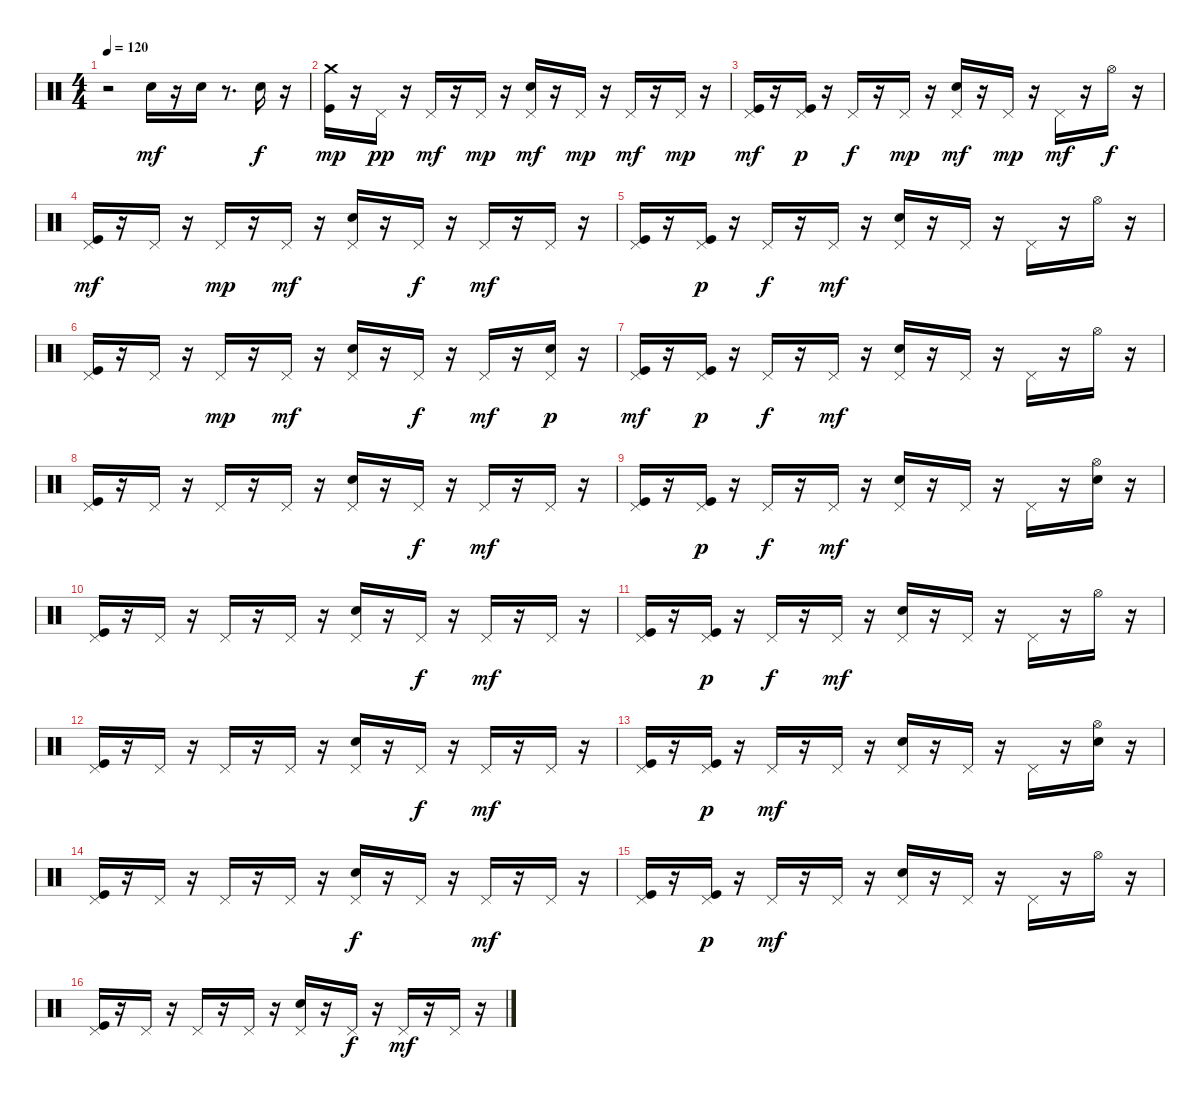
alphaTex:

\track "" {instrument percussion}
\staff {score}
\articulation defaults
\ts (4 4)
\tempo 120
\clef neutral
\ks c
r.2{dy mf} "Snare (hit) 2".16 r.16 "Snare (hit) 2".16 r.8{d} "Snare (hit) 2".16{dy f} r.16 |
("Crash medium (hit)" "Kick (hit)").16{dy mp} r.16 "Pedal Hi-Hat (hit)".16{dy pp} r.16 "Pedal Hi-Hat (hit)".16{dy mf} r.16 "Pedal Hi-Hat (hit)".16{dy mp} r.16 ("Snare (hit) 2" "Pedal Hi-Hat (hit)").16{dy mf} r.16 "Pedal Hi-Hat (hit)".16{dy mp} r.16 "Pedal Hi-Hat (hit)".16{dy mf} r.16 "Pedal Hi-Hat (hit)".16{dy mp} r.16 |
("Kick (hit)" "Pedal Hi-Hat (hit)").16{dy mf} r.16 ("Kick (hit)" "Pedal Hi-Hat (hit)").16{dy p} r.16 "Pedal Hi-Hat (hit)".16{dy f} r.16 "Pedal Hi-Hat (hit)".16{dy mp} r.16 ("Snare (hit) 2" "Pedal Hi-Hat (hit)").16{dy mf} r.16 "Pedal Hi-Hat (hit)".16{dy mp} r.16 "Pedal Hi-Hat (hit)".16{dy mf} r.16 "Hi-Hat (open)".16{dy f} r.16 |
("Kick (hit)" "Pedal Hi-Hat (hit)").16{dy mf} r.16 "Pedal Hi-Hat (hit)".16 r.16 "Pedal Hi-Hat (hit)".16{dy mp} r.16 "Pedal Hi-Hat (hit)".16{dy mf} r.16 ("Snare (hit) 2" "Pedal Hi-Hat (hit)").16 r.16 "Pedal Hi-Hat (hit)".16{dy f} r.16 "Pedal Hi-Hat (hit)".16{dy mf} r.16 "Pedal Hi-Hat (hit)".16 r.16 |
("Kick (hit)" "Pedal Hi-Hat (hit)").16 r.16 ("Kick (hit)" "Pedal Hi-Hat (hit)").16{dy p} r.16 "Pedal Hi-Hat (hit)".16{dy f} r.16 "Pedal Hi-Hat (hit)".16{dy mf} r.16 ("Snare (hit) 2" "Pedal Hi-Hat (hit)").16 r.16 "Pedal Hi-Hat (hit)".16 r.16 "Pedal Hi-Hat (hit)".16 r.16 "Hi-Hat (open)".16 r.16 |
("Kick (hit)" "Pedal Hi-Hat (hit)").16 r.16 "Pedal Hi-Hat (hit)".16 r.16 "Pedal Hi-Hat (hit)".16{dy mp} r.16 "Pedal Hi-Hat (hit)".16{dy mf} r.16 ("Snare (hit) 2" "Pedal Hi-Hat (hit)").16 r.16 "Pedal Hi-Hat (hit)".16{dy f} r.16 "Pedal Hi-Hat (hit)".16{dy mf} r.16 ("Snare (hit) 2" "Pedal Hi-Hat (hit)").16{dy p} r.16 |
("Kick (hit)" "Pedal Hi-Hat (hit)").16{dy mf} r.16 ("Kick (hit)" "Pedal Hi-Hat (hit)").16{dy p} r.16 "Pedal Hi-Hat (hit)".16{dy f} r.16 "Pedal Hi-Hat (hit)".16{dy mf} r.16 ("Snare (hit) 2" "Pedal Hi-Hat (hit)").16 r.16 "Pedal Hi-Hat (hit)".16 r.16 "Pedal Hi-Hat (hit)".16 r.16 "Hi-Hat (open)".16 r.16 |
("Kick (hit)" "Pedal Hi-Hat (hit)").16 r.16 "Pedal Hi-Hat (hit)".16 r.16 "Pedal Hi-Hat (hit)".16 r.16 "Pedal Hi-Hat (hit)".16 r.16 ("Snare (hit) 2" "Pedal Hi-Hat (hit)").16 r.16 "Pedal Hi-Hat (hit)".16{dy f} r.16 "Pedal Hi-Hat (hit)".16{dy mf} r.16 "Pedal Hi-Hat (hit)".16 r.16 |
("Kick (hit)" "Pedal Hi-Hat (hit)").16 r.16 ("Kick (hit)" "Pedal Hi-Hat (hit)").16{dy p} r.16 "Pedal Hi-Hat (hit)".16{dy f} r.16 "Pedal Hi-Hat (hit)".16{dy mf} r.16 ("Snare (hit) 2" "Pedal Hi-Hat (hit)").16 r.16 "Pedal Hi-Hat (hit)".16 r.16 "Pedal Hi-Hat (hit)".16 r.16 ("Hi-Hat (open)" "Snare (hit) 2").16 r.16 |
("Kick (hit)" "Pedal Hi-Hat (hit)").16 r.16 "Pedal Hi-Hat (hit)".16 r.16 "Pedal Hi-Hat (hit)".16 r.16 "Pedal Hi-Hat (hit)".16 r.16 ("Snare (hit) 2" "Pedal Hi-Hat (hit)").16 r.16 "Pedal Hi-Hat (hit)".16{dy f} r.16 "Pedal Hi-Hat (hit)".16{dy mf} r.16 "Pedal Hi-Hat (hit)".16 r.16 |
("Kick (hit)" "Pedal Hi-Hat (hit)").16 r.16 ("Kick (hit)" "Pedal Hi-Hat (hit)").16{dy p} r.16 "Pedal Hi-Hat (hit)".16{dy f} r.16 "Pedal Hi-Hat (hit)".16{dy mf} r.16 ("Snare (hit) 2" "Pedal Hi-Hat (hit)").16 r.16 "Pedal Hi-Hat (hit)".16 r.16 "Pedal Hi-Hat (hit)".16 r.16 "Hi-Hat (open)".16 r.16 |
("Kick (hit)" "Pedal Hi-Hat (hit)").16 r.16 "Pedal Hi-Hat (hit)".16 r.16 "Pedal Hi-Hat (hit)".16 r.16 "Pedal Hi-Hat (hit)".16 r.16 ("Snare (hit) 2" "Pedal Hi-Hat (hit)").16 r.16 "Pedal Hi-Hat (hit)".16{dy f} r.16 "Pedal Hi-Hat (hit)".16{dy mf} r.16 "Pedal Hi-Hat (hit)".16 r.16 |
("Kick (hit)" "Pedal Hi-Hat (hit)").16 r.16 ("Kick (hit)" "Pedal Hi-Hat (hit)").16{dy p} r.16 "Pedal Hi-Hat (hit)".16{dy mf} r.16 "Pedal Hi-Hat (hit)".16 r.16 ("Snare (hit) 2" "Pedal Hi-Hat (hit)").16 r.16 "Pedal Hi-Hat (hit)".16 r.16 "Pedal Hi-Hat (hit)".16 r.16 ("Hi-Hat (open)" "Snare (hit) 2").16 r.16 |
("Kick (hit)" "Pedal Hi-Hat (hit)").16 r.16 "Pedal Hi-Hat (hit)".16 r.16 "Pedal Hi-Hat (hit)".16 r.16 "Pedal Hi-Hat (hit)".16 r.16 ("Snare (hit) 2" "Pedal Hi-Hat (hit)").16{dy f} r.16 "Pedal Hi-Hat (hit)".16 r.16 "Pedal Hi-Hat (hit)".16{dy mf} r.16 "Pedal Hi-Hat (hit)".16 r.16 |
("Kick (hit)" "Pedal Hi-Hat (hit)").16 r.16 ("Kick (hit)" "Pedal Hi-Hat (hit)").16{dy p} r.16 "Pedal Hi-Hat (hit)".16{dy mf} r.16 "Pedal Hi-Hat (hit)".16 r.16 ("Snare (hit) 2" "Pedal Hi-Hat (hit)").16 r.16 "Pedal Hi-Hat (hit)".16 r.16 "Pedal Hi-Hat (hit)".16 r.16 "Hi-Hat (open)".16 r.16 |
("Kick (hit)" "Pedal Hi-Hat (hit)").16 r.16 "Pedal Hi-Hat (hit)".16 r.16 "Pedal Hi-Hat (hit)".16 r.16 "Pedal Hi-Hat (hit)".16 r.16 ("Snare (hit) 2" "Pedal Hi-Hat (hit)").16 r.16 "Pedal Hi-Hat (hit)".16{dy f} r.16 "Pedal Hi-Hat (hit)".16{dy mf} r.16 "Pedal Hi-Hat (hit)".16 r.16
